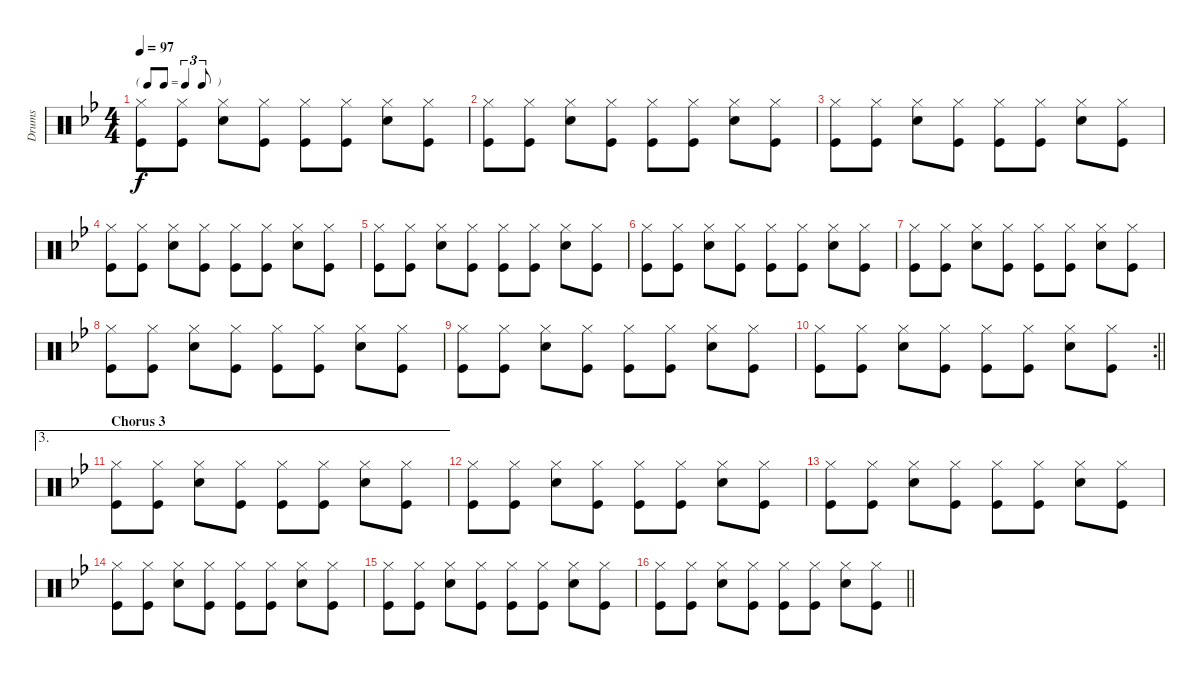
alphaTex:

\track ("Drums" "Drums") {instrument percussion}
\staff {score}
\articulation defaults
\ts (4 4)
\tf triplet8th
\tempo 97
\clef neutral
\ks bb
("Kick (hit)" "Hi-Hat (closed)").8{dy f} ("Kick (hit)" "Hi-Hat (closed)").8 ("Snare (hit) 2" "Hi-Hat (closed)").8 ("Kick (hit)" "Hi-Hat (closed)").8 ("Kick (hit)" "Hi-Hat (closed)").8 ("Kick (hit)" "Hi-Hat (closed)").8 ("Snare (hit) 2" "Hi-Hat (closed)").8 ("Kick (hit)" "Hi-Hat (closed)").8 |
("Kick (hit)" "Hi-Hat (closed)").8 ("Kick (hit)" "Hi-Hat (closed)").8 ("Snare (hit) 2" "Hi-Hat (closed)").8 ("Kick (hit)" "Hi-Hat (closed)").8 ("Kick (hit)" "Hi-Hat (closed)").8 ("Kick (hit)" "Hi-Hat (closed)").8 ("Snare (hit) 2" "Hi-Hat (closed)").8 ("Kick (hit)" "Hi-Hat (closed)").8 |
("Kick (hit)" "Hi-Hat (closed)").8 ("Kick (hit)" "Hi-Hat (closed)").8 ("Snare (hit) 2" "Hi-Hat (closed)").8 ("Kick (hit)" "Hi-Hat (closed)").8 ("Kick (hit)" "Hi-Hat (closed)").8 ("Kick (hit)" "Hi-Hat (closed)").8 ("Snare (hit) 2" "Hi-Hat (closed)").8 ("Kick (hit)" "Hi-Hat (closed)").8 |
("Kick (hit)" "Hi-Hat (closed)").8 ("Kick (hit)" "Hi-Hat (closed)").8 ("Snare (hit) 2" "Hi-Hat (closed)").8 ("Kick (hit)" "Hi-Hat (closed)").8 ("Kick (hit)" "Hi-Hat (closed)").8 ("Kick (hit)" "Hi-Hat (closed)").8 ("Snare (hit) 2" "Hi-Hat (closed)").8 ("Kick (hit)" "Hi-Hat (closed)").8 |
("Kick (hit)" "Hi-Hat (closed)").8 ("Kick (hit)" "Hi-Hat (closed)").8 ("Snare (hit) 2" "Hi-Hat (closed)").8 ("Kick (hit)" "Hi-Hat (closed)").8 ("Kick (hit)" "Hi-Hat (closed)").8 ("Kick (hit)" "Hi-Hat (closed)").8 ("Snare (hit) 2" "Hi-Hat (closed)").8 ("Kick (hit)" "Hi-Hat (closed)").8 |
("Kick (hit)" "Hi-Hat (closed)").8 ("Kick (hit)" "Hi-Hat (closed)").8 ("Snare (hit) 2" "Hi-Hat (closed)").8 ("Kick (hit)" "Hi-Hat (closed)").8 ("Kick (hit)" "Hi-Hat (closed)").8 ("Kick (hit)" "Hi-Hat (closed)").8 ("Snare (hit) 2" "Hi-Hat (closed)").8 ("Kick (hit)" "Hi-Hat (closed)").8 |
("Kick (hit)" "Hi-Hat (closed)").8 ("Kick (hit)" "Hi-Hat (closed)").8 ("Snare (hit) 2" "Hi-Hat (closed)").8 ("Kick (hit)" "Hi-Hat (closed)").8 ("Kick (hit)" "Hi-Hat (closed)").8 ("Kick (hit)" "Hi-Hat (closed)").8 ("Snare (hit) 2" "Hi-Hat (closed)").8 ("Kick (hit)" "Hi-Hat (closed)").8 |
("Kick (hit)" "Hi-Hat (closed)").8 ("Kick (hit)" "Hi-Hat (closed)").8 ("Snare (hit) 2" "Hi-Hat (closed)").8 ("Kick (hit)" "Hi-Hat (closed)").8 ("Kick (hit)" "Hi-Hat (closed)").8 ("Kick (hit)" "Hi-Hat (closed)").8 ("Snare (hit) 2" "Hi-Hat (closed)").8 ("Kick (hit)" "Hi-Hat (closed)").8 |
("Kick (hit)" "Hi-Hat (closed)").8 ("Kick (hit)" "Hi-Hat (closed)").8 ("Snare (hit) 2" "Hi-Hat (closed)").8 ("Kick (hit)" "Hi-Hat (closed)").8 ("Kick (hit)" "Hi-Hat (closed)").8 ("Kick (hit)" "Hi-Hat (closed)").8 ("Snare (hit) 2" "Hi-Hat (closed)").8 ("Kick (hit)" "Hi-Hat (closed)").8 |
\rc 2
\barLineRight lightlight
("Kick (hit)" "Hi-Hat (closed)").8 ("Kick (hit)" "Hi-Hat (closed)").8 ("Snare (hit) 2" "Hi-Hat (closed)").8 ("Kick (hit)" "Hi-Hat (closed)").8 ("Kick (hit)" "Hi-Hat (closed)").8 ("Kick (hit)" "Hi-Hat (closed)").8 ("Snare (hit) 2" "Hi-Hat (closed)").8 ("Kick (hit)" "Hi-Hat (closed)").8 |
\ae 3
\section ("" "Chorus 3")
("Kick (hit)" "Hi-Hat (closed)").8 ("Kick (hit)" "Hi-Hat (closed)").8 ("Snare (hit) 2" "Hi-Hat (closed)").8 ("Kick (hit)" "Hi-Hat (closed)").8 ("Kick (hit)" "Hi-Hat (closed)").8 ("Kick (hit)" "Hi-Hat (closed)").8 ("Snare (hit) 2" "Hi-Hat (closed)").8 ("Kick (hit)" "Hi-Hat (closed)").8 |
("Kick (hit)" "Hi-Hat (closed)").8 ("Kick (hit)" "Hi-Hat (closed)").8 ("Snare (hit) 2" "Hi-Hat (closed)").8 ("Kick (hit)" "Hi-Hat (closed)").8 ("Kick (hit)" "Hi-Hat (closed)").8 ("Kick (hit)" "Hi-Hat (closed)").8 ("Snare (hit) 2" "Hi-Hat (closed)").8 ("Kick (hit)" "Hi-Hat (closed)").8 |
("Kick (hit)" "Hi-Hat (closed)").8 ("Kick (hit)" "Hi-Hat (closed)").8 ("Snare (hit) 2" "Hi-Hat (closed)").8 ("Kick (hit)" "Hi-Hat (closed)").8 ("Kick (hit)" "Hi-Hat (closed)").8 ("Kick (hit)" "Hi-Hat (closed)").8 ("Snare (hit) 2" "Hi-Hat (closed)").8 ("Kick (hit)" "Hi-Hat (closed)").8 |
("Kick (hit)" "Hi-Hat (closed)").8 ("Kick (hit)" "Hi-Hat (closed)").8 ("Snare (hit) 2" "Hi-Hat (closed)").8 ("Kick (hit)" "Hi-Hat (closed)").8 ("Kick (hit)" "Hi-Hat (closed)").8 ("Kick (hit)" "Hi-Hat (closed)").8 ("Snare (hit) 2" "Hi-Hat (closed)").8 ("Kick (hit)" "Hi-Hat (closed)").8 |
("Kick (hit)" "Hi-Hat (closed)").8 ("Kick (hit)" "Hi-Hat (closed)").8 ("Snare (hit) 2" "Hi-Hat (closed)").8 ("Kick (hit)" "Hi-Hat (closed)").8 ("Kick (hit)" "Hi-Hat (closed)").8 ("Kick (hit)" "Hi-Hat (closed)").8 ("Snare (hit) 2" "Hi-Hat (closed)").8 ("Kick (hit)" "Hi-Hat (closed)").8 |
\barLineRight lightlight
("Kick (hit)" "Hi-Hat (closed)").8 ("Kick (hit)" "Hi-Hat (closed)").8 ("Snare (hit) 2" "Hi-Hat (closed)").8 ("Kick (hit)" "Hi-Hat (closed)").8 ("Kick (hit)" "Hi-Hat (closed)").8 ("Kick (hit)" "Hi-Hat (closed)").8 ("Snare (hit) 2" "Hi-Hat (closed)").8 ("Kick (hit)" "Hi-Hat (closed)").8
